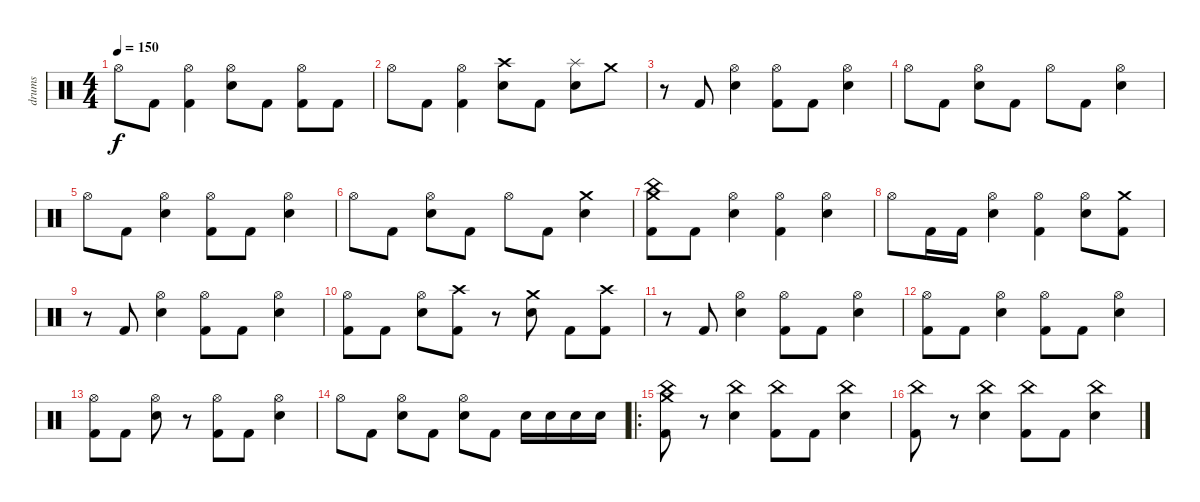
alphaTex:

\track ("drums" "drums") {instrument percussion}
\staff {score}
\articulation defaults
\ts (4 4)
\tempo 150
\clef neutral
\ks c "Hi-Hat (open)".8{dy f} "Kick (hit) 2".8
("Hi-Hat (open)" "Kick (hit) 2").4 ("Hi-Hat (open)" "Electric Snare (hit)").8 "Kick (hit) 2".8 ("Hi-Hat (open)" "Kick (hit) 2").8 "Kick (hit) 2".8 |
"Hi-Hat (open)".8 "Kick (hit) 2".8 ("Hi-Hat (open)" "Kick (hit) 2").4 ("Crash high (hit)" "Electric Snare (hit)").8 "Kick (hit) 2".8 ("Splash (hit)" "Electric Snare (hit)").8 "Crash medium (hit)".8 |
r.8 "Kick (hit) 2".8 ("Hi-Hat (open)" "Electric Snare (hit)").4 ("Hi-Hat (open)" "Kick (hit) 2").8 "Kick (hit) 2".8 ("Hi-Hat (open)" "Electric Snare (hit)").4 |
"Hi-Hat (open)".8 "Kick (hit) 2".8 ("Hi-Hat (open)" "Electric Snare (hit)").8 "Kick (hit) 2".8 "Hi-Hat (open)".8 "Kick (hit) 2".8 ("Hi-Hat (open)" "Electric Snare (hit)").4 |
"Hi-Hat (open)".8 "Kick (hit) 2".8 ("Hi-Hat (open)" "Electric Snare (hit)").4 ("Hi-Hat (open)" "Kick (hit) 2").8 "Kick (hit) 2".8 ("Hi-Hat (open)" "Electric Snare (hit)").4 |
"Hi-Hat (open)".8 "Kick (hit) 2".8 ("Hi-Hat (open)" "Electric Snare (hit)").8 "Kick (hit) 2".8 "Hi-Hat (open)".8 "Kick (hit) 2".8 ("Crash medium (hit)" "Electric Snare (hit)").4 |
("China (hit)" "Crash medium (hit)" "Kick (hit) 2").8 "Kick (hit) 2".8 ("Hi-Hat (open)" "Electric Snare (hit)").4 ("Hi-Hat (open)" "Kick (hit) 2").4 ("Hi-Hat (open)" "Electric Snare (hit)").4 |
"Hi-Hat (open)".8 "Kick (hit) 2".16 "Kick (hit) 2".16 ("Hi-Hat (open)" "Electric Snare (hit)").4 ("Hi-Hat (open)" "Kick (hit) 2").4 ("Hi-Hat (open)" "Electric Snare (hit)").8 ("Crash medium (hit)" "Kick (hit) 2").8 |
r.8 "Kick (hit) 2".8 ("Hi-Hat (open)" "Electric Snare (hit)").4 ("Hi-Hat (open)" "Kick (hit) 2").8 "Kick (hit) 2".8 ("Hi-Hat (open)" "Electric Snare (hit)").4 |
("Hi-Hat (open)" "Kick (hit) 2").8 "Kick (hit) 2".8 ("Hi-Hat (open)" "Electric Snare (hit)").8 ("Crash high (hit)" "Kick (hit) 2").8 r.8 ("Crash medium (hit)" "Electric Snare (hit)").8 "Kick (hit) 2".8 ("Crash high (hit)" "Kick (hit) 2").8 |
r.8 "Kick (hit) 2".8 ("Hi-Hat (open)" "Electric Snare (hit)").4 ("Hi-Hat (open)" "Kick (hit) 2").8 "Kick (hit) 2".8 ("Hi-Hat (open)" "Electric Snare (hit)").4 |
("Hi-Hat (open)" "Kick (hit) 2").8 "Kick (hit) 2".8 ("Hi-Hat (open)" "Electric Snare (hit)").4 ("Hi-Hat (open)" "Kick (hit) 2").8 "Kick (hit) 2".8 ("Hi-Hat (open)" "Electric Snare (hit)").4 |
("Hi-Hat (open)" "Kick (hit) 2").8 "Kick (hit) 2".8 ("Hi-Hat (open)" "Electric Snare (hit)").8 r.8 ("Hi-Hat (open)" "Kick (hit) 2").8 "Kick (hit) 2".8 ("Hi-Hat (open)" "Electric Snare (hit)").4 |
"Hi-Hat (open)".8 "Kick (hit) 2".8 ("Hi-Hat (open)" "Electric Snare (hit)").8 "Kick (hit) 2".8 ("Hi-Hat (open)" "Electric Snare (hit)").8 "Kick (hit) 2".8 "Electric Snare (hit)".16 "Electric Snare (hit)".16 "Electric Snare (hit)".16 "Electric Snare (hit)".16 |
\ro
("China (hit)" "Crash medium (hit)" "Kick (hit) 2").8 r.8 ("China (hit)" "Electric Snare (hit)").4 ("China (hit)" "Kick (hit) 2").8 "Kick (hit) 2".8 ("China (hit)" "Electric Snare (hit)").4 |
("China (hit)" "Kick (hit) 2").8 r.8 ("China (hit)" "Electric Snare (hit)").4 ("China (hit)" "Kick (hit) 2").8 "Kick (hit) 2".8 ("China (hit)" "Electric Snare (hit)").4
